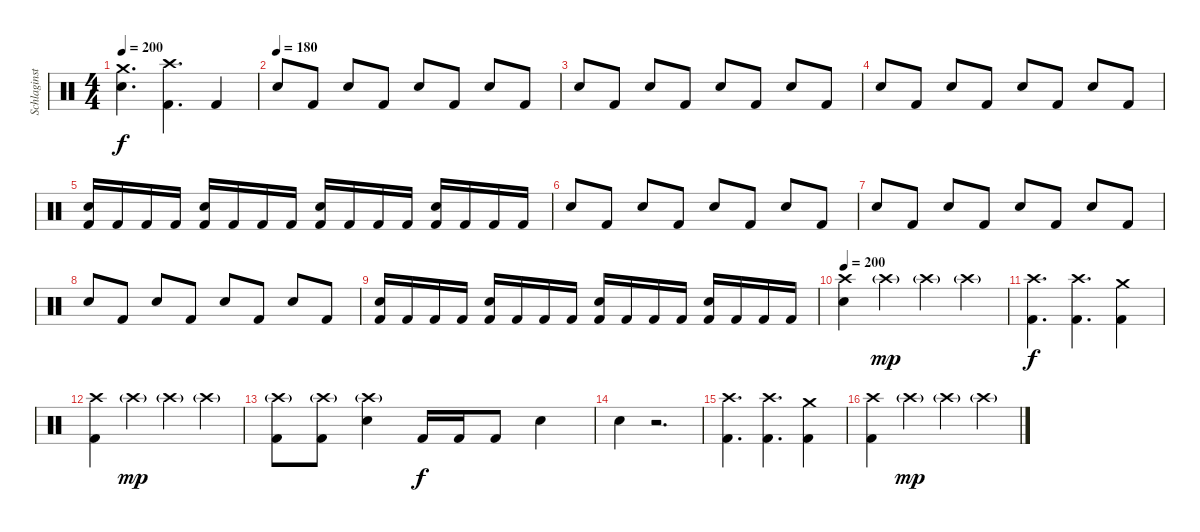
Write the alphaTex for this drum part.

\track ("Schlaginstrumente - Auswahl" "Schlaginst") {instrument percussion}
\staff {score}
\articulation defaults
\ts (4 4)
\tempo 200
\clef neutral
\ks c
("Crash medium (hit)" "Snare (hit) 2").4{d dy f} ("Crash high (hit)" "Kick (hit) 2").4{d} "Kick (hit) 2".4 |
\tempo (180)
"Snare (hit) 2".8 "Kick (hit) 2".8 "Snare (hit) 2".8 "Kick (hit) 2".8 "Snare (hit) 2".8 "Kick (hit) 2".8 "Snare (hit) 2".8 "Kick (hit) 2".8 |
"Snare (hit) 2".8 "Kick (hit) 2".8 "Snare (hit) 2".8 "Kick (hit) 2".8 "Snare (hit) 2".8 "Kick (hit) 2".8 "Snare (hit) 2".8 "Kick (hit) 2".8 |
"Snare (hit) 2".8 "Kick (hit) 2".8 "Snare (hit) 2".8 "Kick (hit) 2".8 "Snare (hit) 2".8 "Kick (hit) 2".8 "Snare (hit) 2".8 "Kick (hit) 2".8 |
("Snare (hit) 2" "Kick (hit) 2").16 "Kick (hit) 2".16 "Kick (hit) 2".16 "Kick (hit) 2".16 ("Snare (hit) 2" "Kick (hit) 2").16 "Kick (hit) 2".16 "Kick (hit) 2".16 "Kick (hit) 2".16 ("Snare (hit) 2" "Kick (hit) 2").16 "Kick (hit) 2".16 "Kick (hit) 2".16 "Kick (hit) 2".16 ("Snare (hit) 2" "Kick (hit) 2").16 "Kick (hit) 2".16 "Kick (hit) 2".16 "Kick (hit) 2".16 |
"Snare (hit) 2".8 "Kick (hit) 2".8 "Snare (hit) 2".8 "Kick (hit) 2".8 "Snare (hit) 2".8 "Kick (hit) 2".8 "Snare (hit) 2".8 "Kick (hit) 2".8 |
"Snare (hit) 2".8 "Kick (hit) 2".8 "Snare (hit) 2".8 "Kick (hit) 2".8 "Snare (hit) 2".8 "Kick (hit) 2".8 "Snare (hit) 2".8 "Kick (hit) 2".8 |
"Snare (hit) 2".8 "Kick (hit) 2".8 "Snare (hit) 2".8 "Kick (hit) 2".8 "Snare (hit) 2".8 "Kick (hit) 2".8 "Snare (hit) 2".8 "Kick (hit) 2".8 |
("Snare (hit) 2" "Kick (hit) 2").16 "Kick (hit) 2".16 "Kick (hit) 2".16 "Kick (hit) 2".16 ("Snare (hit) 2" "Kick (hit) 2").16 "Kick (hit) 2".16 "Kick (hit) 2".16 "Kick (hit) 2".16 ("Snare (hit) 2" "Kick (hit) 2").16 "Kick (hit) 2".16 "Kick (hit) 2".16 "Kick (hit) 2".16 ("Snare (hit) 2" "Kick (hit) 2").16 "Kick (hit) 2".16 "Kick (hit) 2".16 "Kick (hit) 2".16 |
\tempo 200
("Crash high (hit)" "Snare (hit) 2").4 "Crash high (hit)"{g}.4{dy mp} "Crash high (hit)"{g}.4 "Crash high (hit)"{g}.4 |
("Crash high (hit)" "Kick (hit) 2").4{d dy f} ("Crash high (hit)" "Kick (hit) 2").4{d} ("Crash medium (hit)" "Kick (hit) 2").4 |
("Crash high (hit)" "Kick (hit) 2").4 "Crash high (hit)"{g}.4{dy mp} "Crash high (hit)"{g}.4 "Crash high (hit)"{g}.4 |
("Crash high (hit)"{g} "Kick (hit) 2").8 ("Crash high (hit)"{g} "Kick (hit) 2").8 ("Crash high (hit)"{g} "Snare (hit) 2").4 "Kick (hit) 2".16{dy f} "Kick (hit) 2".16 "Kick (hit) 2".8 "Snare (hit) 2".4 |
"Snare (hit) 2".4 r.2{d} |
("Crash high (hit)" "Kick (hit) 2").4{d} ("Crash high (hit)" "Kick (hit) 2").4{d} ("Crash medium (hit)" "Kick (hit) 2").4 |
("Crash high (hit)" "Kick (hit) 2").4 "Crash high (hit)"{g}.4{dy mp} "Crash high (hit)"{g}.4 "Crash high (hit)"{g}.4
